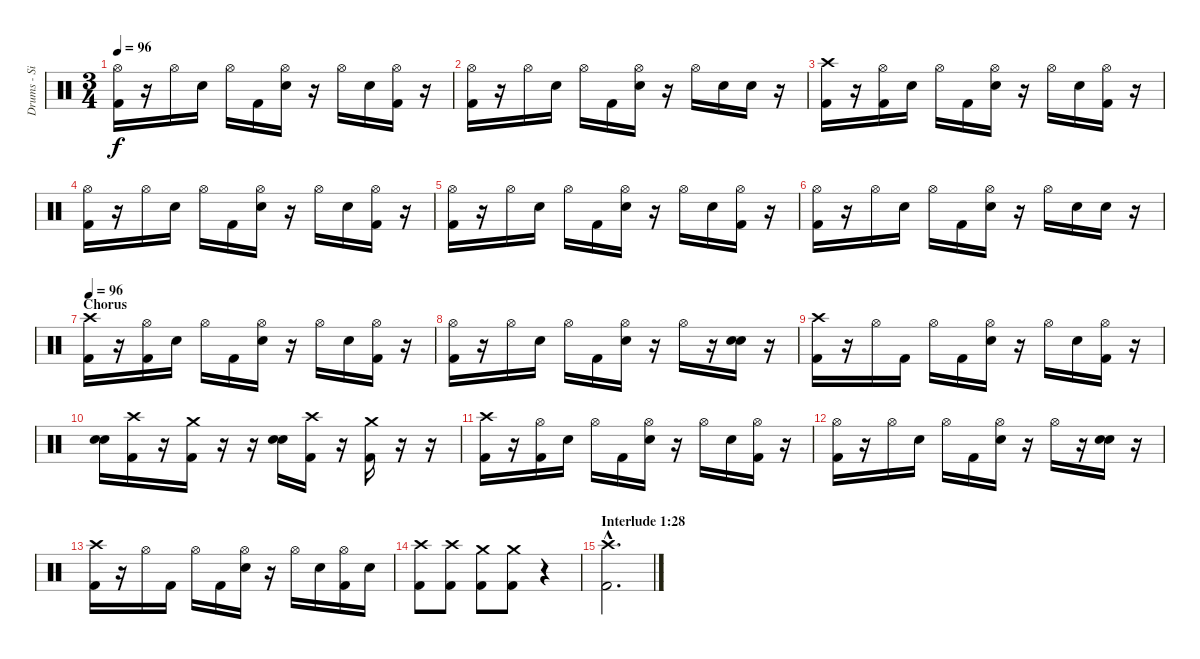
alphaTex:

\track ("Drums - Si" "Drums - Si") {instrument percussion}
\staff {score}
\articulation defaults
\ts (3 4)
\tempo 96
\clef neutral
\ks c
("Hi-Hat (open)" "Kick (hit) 2").16{dy f} r.16 "Hi-Hat (open)".16 "Snare (hit) 2".16 "Hi-Hat (open)".16 "Kick (hit) 2".16 ("Hi-Hat (open)" "Snare (hit) 2").16 r.16 "Hi-Hat (open)".16 "Snare (hit) 2".16 ("Hi-Hat (open)" "Kick (hit) 2").16 r.16 |
("Hi-Hat (open)" "Kick (hit) 2").16 r.16 "Hi-Hat (open)".16 "Snare (hit) 2".16 "Hi-Hat (open)".16 "Kick (hit) 2".16 ("Hi-Hat (open)" "Snare (hit) 2").16 r.16 "Hi-Hat (open)".16 "Snare (hit) 2".16 "Snare (hit) 2".16 r.16 |
("Crash high (hit)" "Kick (hit) 2").16 r.16 ("Hi-Hat (open)" "Kick (hit) 2").16 "Snare (hit) 2".16 "Hi-Hat (open)".16 "Kick (hit) 2".16 ("Hi-Hat (open)" "Snare (hit) 2").16 r.16 "Hi-Hat (open)".16 "Snare (hit) 2".16 ("Hi-Hat (open)" "Kick (hit) 2").16 r.16 |
("Hi-Hat (open)" "Kick (hit) 2").16 r.16 "Hi-Hat (open)".16 "Snare (hit) 2".16 "Hi-Hat (open)".16 "Kick (hit) 2".16 ("Hi-Hat (open)" "Snare (hit) 2").16 r.16 "Hi-Hat (open)".16 "Snare (hit) 2".16 ("Hi-Hat (open)" "Kick (hit) 2").16 r.16 |
("Hi-Hat (open)" "Kick (hit) 2").16 r.16 "Hi-Hat (open)".16 "Snare (hit) 2".16 "Hi-Hat (open)".16 "Kick (hit) 2".16 ("Hi-Hat (open)" "Snare (hit) 2").16 r.16 "Hi-Hat (open)".16 "Snare (hit) 2".16 ("Hi-Hat (open)" "Kick (hit) 2").16 r.16 |
("Hi-Hat (open)" "Kick (hit) 2").16 r.16 "Hi-Hat (open)".16 "Snare (hit) 2".16 "Hi-Hat (open)".16 "Kick (hit) 2".16 ("Hi-Hat (open)" "Snare (hit) 2").16 r.16 "Hi-Hat (open)".16 "Snare (hit) 2".16 "Snare (hit) 2".16 r.16 |
\section ("" "Chorus")
\tempo 96
("Crash high (hit)" "Kick (hit) 2").16 r.16 ("Hi-Hat (open)" "Kick (hit) 2").16 "Snare (hit) 2".16 "Hi-Hat (open)".16 "Kick (hit) 2".16 ("Hi-Hat (open)" "Snare (hit) 2").16 r.16 "Hi-Hat (open)".16 "Snare (hit) 2".16 ("Hi-Hat (open)" "Kick (hit) 2").16 r.16 |
("Hi-Hat (open)" "Kick (hit) 2").16 r.16 "Hi-Hat (open)".16 "Snare (hit) 2".16 "Hi-Hat (open)".16 "Kick (hit) 2".16 ("Hi-Hat (open)" "Snare (hit) 2").16 r.16 "Hi-Hat (open)".16 r.16 ("Snare (hit) 2" "Snare (hit) 2").16 r.16 |
("Crash high (hit)" "Kick (hit) 2").16 r.16 "Hi-Hat (open)".16 "Kick (hit) 2".16 "Hi-Hat (open)".16 "Kick (hit) 2".16 ("Hi-Hat (open)" "Snare (hit) 2").16 r.16 "Hi-Hat (open)".16 "Snare (hit) 2".16 ("Hi-Hat (open)" "Kick (hit) 2").16 r.16 |
("Snare (hit) 2" "Snare (hit) 2").16 ("Crash high (hit)" "Kick (hit) 2").16 r.16 ("Crash medium (hit)" "Kick (hit) 2").16 r.16 r.16 ("Snare (hit) 2" "Snare (hit) 2").16 ("Crash high (hit)" "Kick (hit) 2").16 r.16 ("Crash medium (hit)" "Kick (hit) 2").16 r.16 r.16 |
("Crash high (hit)" "Kick (hit) 2").16 r.16 ("Hi-Hat (open)" "Kick (hit) 2").16 "Snare (hit) 2".16 "Hi-Hat (open)".16 "Kick (hit) 2".16 ("Hi-Hat (open)" "Snare (hit) 2").16 r.16 "Hi-Hat (open)".16 "Snare (hit) 2".16 ("Hi-Hat (open)" "Kick (hit) 2").16 r.16 |
("Hi-Hat (open)" "Kick (hit) 2").16 r.16 "Hi-Hat (open)".16 "Snare (hit) 2".16 "Hi-Hat (open)".16 "Kick (hit) 2".16 ("Hi-Hat (open)" "Snare (hit) 2").16 r.16 "Hi-Hat (open)".16 r.16 ("Snare (hit) 2" "Snare (hit) 2").16 r.16 |
("Crash high (hit)" "Kick (hit) 2").16 r.16 "Hi-Hat (open)".16 "Kick (hit) 2".16 "Hi-Hat (open)".16 "Kick (hit) 2".16 ("Hi-Hat (open)" "Snare (hit) 2").16 r.16 "Hi-Hat (open)".16 "Snare (hit) 2".16 ("Hi-Hat (open)" "Kick (hit) 2").16 "Snare (hit) 2".16 |
("Crash high (hit)" "Kick (hit) 2").8 ("Crash high (hit)" "Kick (hit) 2").8 ("Crash medium (hit)" "Kick (hit) 2").8 ("Crash medium (hit)" "Kick (hit) 2").8 r.4 |
\section ("" "Interlude 1:28")
("Crash high (hit)"{hac} "Kick (hit) 2"{hac}).2{d}
